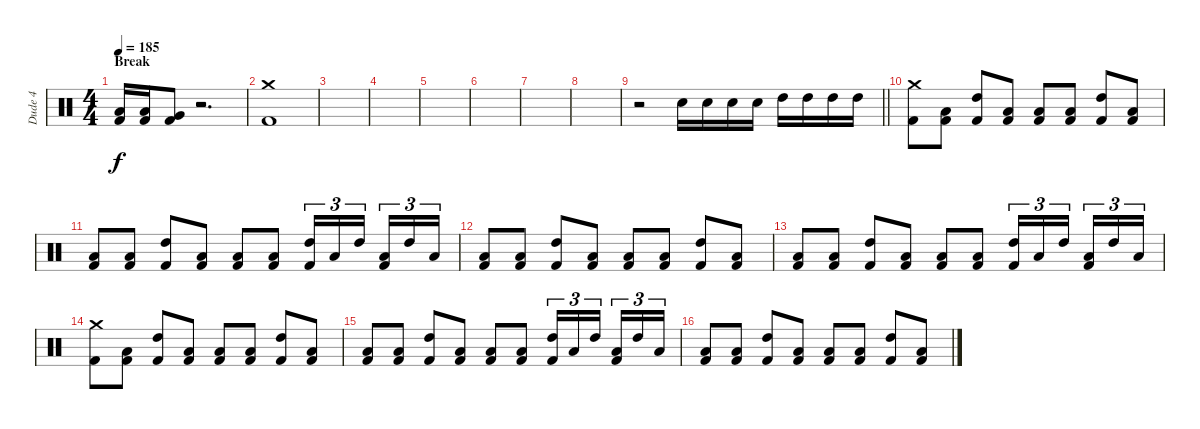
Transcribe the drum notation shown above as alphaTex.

\track ("Dude 4" "Dude 4") {instrument percussion}
\staff {score}
\articulation defaults
\ts (4 4)
\section ("" "Break")
\tempo 185
\clef neutral
\ks c
("Low Tom (hit)" "Kick (hit) 2").16{dy f} ("Low Tom (hit)" "Kick (hit) 2").16 ("Very Low Tom (hit)" "Kick (hit) 2").8 r.2{d} |
("Crash medium (hit)" "Kick (hit) 2").1 |
|
|
|
|
|
|
\barLineRight lightlight
r.2 "Snare (hit) 2".16 "Snare (hit) 2".16 "Snare (hit) 2".16 "Snare (hit) 2".16 "High Tom (hit)".16 "High Tom (hit)".16 "High Tom (hit)".16 "High Tom (hit)".16 |
\section ("" "")
("Crash medium (hit)" "Kick (hit) 2").8 ("Low Tom (hit)" "Kick (hit) 2").8 ("High Tom (hit)" "Kick (hit) 2").8 ("Low Tom (hit)" "Kick (hit) 2").8 ("Low Tom (hit)" "Kick (hit) 2").8 ("Low Tom (hit)" "Kick (hit) 2").8 ("High Tom (hit)" "Kick (hit) 2").8 ("Low Tom (hit)" "Kick (hit) 2").8 |
("Low Tom (hit)" "Kick (hit) 2").8 ("Low Tom (hit)" "Kick (hit) 2").8 ("High Tom (hit)" "Kick (hit) 2").8 ("Low Tom (hit)" "Kick (hit) 2").8 ("Low Tom (hit)" "Kick (hit) 2").8 ("Low Tom (hit)" "Kick (hit) 2").8 ("High Tom (hit)" "Kick (hit) 2").16{tu (3 2)} "Low Tom (hit)".16{tu (3 2)} "High Tom (hit)".16{tu (3 2) beam splitsecondary} ("Low Tom (hit)" "Kick (hit) 2").16{tu (3 2)} "High Tom (hit)".16{tu (3 2)} "Low Tom (hit)".16{tu (3 2)} |
("Low Tom (hit)" "Kick (hit) 2").8 ("Low Tom (hit)" "Kick (hit) 2").8 ("High Tom (hit)" "Kick (hit) 2").8 ("Low Tom (hit)" "Kick (hit) 2").8 ("Low Tom (hit)" "Kick (hit) 2").8 ("Low Tom (hit)" "Kick (hit) 2").8 ("High Tom (hit)" "Kick (hit) 2").8 ("Low Tom (hit)" "Kick (hit) 2").8 |
("Low Tom (hit)" "Kick (hit) 2").8 ("Low Tom (hit)" "Kick (hit) 2").8 ("High Tom (hit)" "Kick (hit) 2").8 ("Low Tom (hit)" "Kick (hit) 2").8 ("Low Tom (hit)" "Kick (hit) 2").8 ("Low Tom (hit)" "Kick (hit) 2").8 ("High Tom (hit)" "Kick (hit) 2").16{tu (3 2)} "Low Tom (hit)".16{tu (3 2)} "High Tom (hit)".16{tu (3 2) beam splitsecondary} ("Low Tom (hit)" "Kick (hit) 2").16{tu (3 2)} "High Tom (hit)".16{tu (3 2)} "Low Tom (hit)".16{tu (3 2)} |
("Crash medium (hit)" "Kick (hit) 2").8 ("Low Tom (hit)" "Kick (hit) 2").8 ("High Tom (hit)" "Kick (hit) 2").8 ("Low Tom (hit)" "Kick (hit) 2").8 ("Low Tom (hit)" "Kick (hit) 2").8 ("Low Tom (hit)" "Kick (hit) 2").8 ("High Tom (hit)" "Kick (hit) 2").8 ("Low Tom (hit)" "Kick (hit) 2").8 |
("Low Tom (hit)" "Kick (hit) 2").8 ("Low Tom (hit)" "Kick (hit) 2").8 ("High Tom (hit)" "Kick (hit) 2").8 ("Low Tom (hit)" "Kick (hit) 2").8 ("Low Tom (hit)" "Kick (hit) 2").8 ("Low Tom (hit)" "Kick (hit) 2").8 ("High Tom (hit)" "Kick (hit) 2").16{tu (3 2)} "Low Tom (hit)".16{tu (3 2)} "High Tom (hit)".16{tu (3 2) beam splitsecondary} ("Low Tom (hit)" "Kick (hit) 2").16{tu (3 2)} "High Tom (hit)".16{tu (3 2)} "Low Tom (hit)".16{tu (3 2)} |
("Low Tom (hit)" "Kick (hit) 2").8 ("Low Tom (hit)" "Kick (hit) 2").8 ("High Tom (hit)" "Kick (hit) 2").8 ("Low Tom (hit)" "Kick (hit) 2").8 ("Low Tom (hit)" "Kick (hit) 2").8 ("Low Tom (hit)" "Kick (hit) 2").8 ("High Tom (hit)" "Kick (hit) 2").8 ("Low Tom (hit)" "Kick (hit) 2").8
